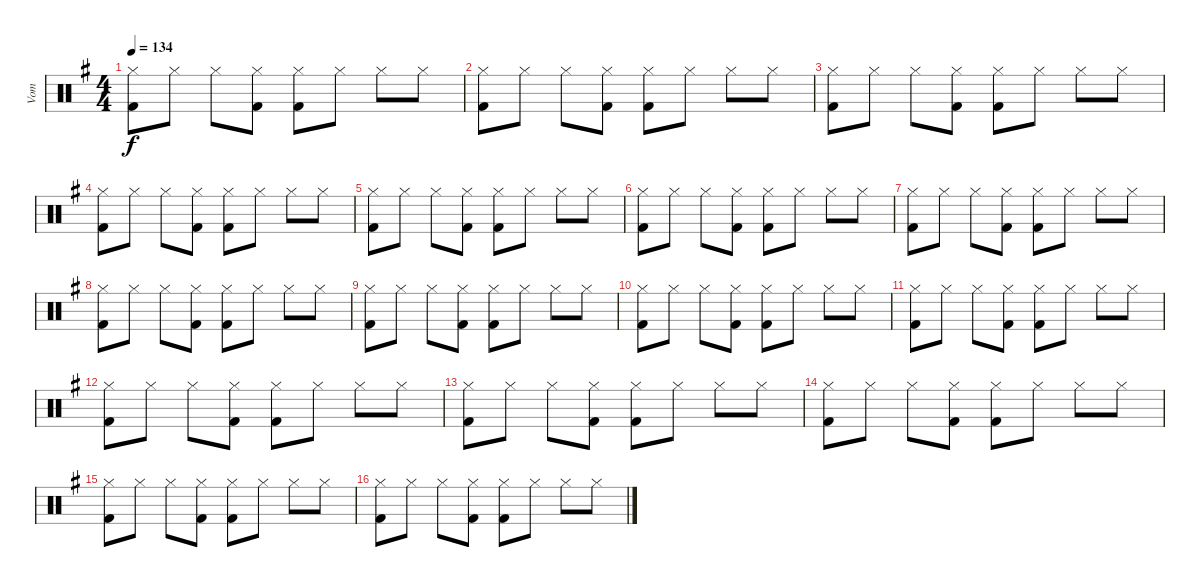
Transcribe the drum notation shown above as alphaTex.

\track ("Vom" "Vom") {instrument percussion}
\staff {score}
\articulation defaults
\ts (4 4)
\tempo 134
\clef neutral
\ks g
("Hi-Hat (closed)" "Kick (hit) 2").8{dy f} "Hi-Hat (closed)".8 "Hi-Hat (closed)".8 ("Hi-Hat (closed)" "Kick (hit) 2").8 ("Hi-Hat (closed)" "Kick (hit) 2").8 "Hi-Hat (closed)".8 "Hi-Hat (closed)".8 "Hi-Hat (closed)".8 |
("Hi-Hat (closed)" "Kick (hit) 2").8 "Hi-Hat (closed)".8 "Hi-Hat (closed)".8 ("Hi-Hat (closed)" "Kick (hit) 2").8 ("Hi-Hat (closed)" "Kick (hit) 2").8 "Hi-Hat (closed)".8 "Hi-Hat (closed)".8 "Hi-Hat (closed)".8 |
("Hi-Hat (closed)" "Kick (hit) 2").8 "Hi-Hat (closed)".8 "Hi-Hat (closed)".8 ("Hi-Hat (closed)" "Kick (hit) 2").8 ("Hi-Hat (closed)" "Kick (hit) 2").8 "Hi-Hat (closed)".8 "Hi-Hat (closed)".8 "Hi-Hat (closed)".8 |
("Hi-Hat (closed)" "Kick (hit) 2").8 "Hi-Hat (closed)".8 "Hi-Hat (closed)".8 ("Hi-Hat (closed)" "Kick (hit) 2").8 ("Hi-Hat (closed)" "Kick (hit) 2").8 "Hi-Hat (closed)".8 "Hi-Hat (closed)".8 "Hi-Hat (closed)".8 |
("Hi-Hat (closed)" "Kick (hit) 2").8 "Hi-Hat (closed)".8 "Hi-Hat (closed)".8 ("Hi-Hat (closed)" "Kick (hit) 2").8 ("Hi-Hat (closed)" "Kick (hit) 2").8 "Hi-Hat (closed)".8 "Hi-Hat (closed)".8 "Hi-Hat (closed)".8 |
("Hi-Hat (closed)" "Kick (hit) 2").8 "Hi-Hat (closed)".8 "Hi-Hat (closed)".8 ("Hi-Hat (closed)" "Kick (hit) 2").8 ("Hi-Hat (closed)" "Kick (hit) 2").8 "Hi-Hat (closed)".8 "Hi-Hat (closed)".8 "Hi-Hat (closed)".8 |
("Hi-Hat (closed)" "Kick (hit) 2").8 "Hi-Hat (closed)".8 "Hi-Hat (closed)".8 ("Hi-Hat (closed)" "Kick (hit) 2").8 ("Hi-Hat (closed)" "Kick (hit) 2").8 "Hi-Hat (closed)".8 "Hi-Hat (closed)".8 "Hi-Hat (closed)".8 |
("Hi-Hat (closed)" "Kick (hit) 2").8 "Hi-Hat (closed)".8 "Hi-Hat (closed)".8 ("Hi-Hat (closed)" "Kick (hit) 2").8 ("Hi-Hat (closed)" "Kick (hit) 2").8 "Hi-Hat (closed)".8 "Hi-Hat (closed)".8 "Hi-Hat (closed)".8 |
("Hi-Hat (closed)" "Kick (hit) 2").8 "Hi-Hat (closed)".8 "Hi-Hat (closed)".8 ("Hi-Hat (closed)" "Kick (hit) 2").8 ("Hi-Hat (closed)" "Kick (hit) 2").8 "Hi-Hat (closed)".8 "Hi-Hat (closed)".8 "Hi-Hat (closed)".8 |
("Hi-Hat (closed)" "Kick (hit) 2").8 "Hi-Hat (closed)".8 "Hi-Hat (closed)".8 ("Hi-Hat (closed)" "Kick (hit) 2").8 ("Hi-Hat (closed)" "Kick (hit) 2").8 "Hi-Hat (closed)".8 "Hi-Hat (closed)".8 "Hi-Hat (closed)".8 |
("Hi-Hat (closed)" "Kick (hit) 2").8 "Hi-Hat (closed)".8 "Hi-Hat (closed)".8 ("Hi-Hat (closed)" "Kick (hit) 2").8 ("Hi-Hat (closed)" "Kick (hit) 2").8 "Hi-Hat (closed)".8 "Hi-Hat (closed)".8 "Hi-Hat (closed)".8 |
("Hi-Hat (closed)" "Kick (hit) 2").8 "Hi-Hat (closed)".8 "Hi-Hat (closed)".8 ("Hi-Hat (closed)" "Kick (hit) 2").8 ("Hi-Hat (closed)" "Kick (hit) 2").8 "Hi-Hat (closed)".8 "Hi-Hat (closed)".8 "Hi-Hat (closed)".8 |
("Hi-Hat (closed)" "Kick (hit) 2").8 "Hi-Hat (closed)".8 "Hi-Hat (closed)".8 ("Hi-Hat (closed)" "Kick (hit) 2").8 ("Hi-Hat (closed)" "Kick (hit) 2").8 "Hi-Hat (closed)".8 "Hi-Hat (closed)".8 "Hi-Hat (closed)".8 |
("Hi-Hat (closed)" "Kick (hit) 2").8 "Hi-Hat (closed)".8 "Hi-Hat (closed)".8 ("Hi-Hat (closed)" "Kick (hit) 2").8 ("Hi-Hat (closed)" "Kick (hit) 2").8 "Hi-Hat (closed)".8 "Hi-Hat (closed)".8 "Hi-Hat (closed)".8 |
("Hi-Hat (closed)" "Kick (hit) 2").8 "Hi-Hat (closed)".8 "Hi-Hat (closed)".8 ("Hi-Hat (closed)" "Kick (hit) 2").8 ("Hi-Hat (closed)" "Kick (hit) 2").8 "Hi-Hat (closed)".8 "Hi-Hat (closed)".8 "Hi-Hat (closed)".8 |
("Hi-Hat (closed)" "Kick (hit) 2").8 "Hi-Hat (closed)".8 "Hi-Hat (closed)".8 ("Hi-Hat (closed)" "Kick (hit) 2").8 ("Hi-Hat (closed)" "Kick (hit) 2").8 "Hi-Hat (closed)".8 "Hi-Hat (closed)".8 "Hi-Hat (closed)".8
